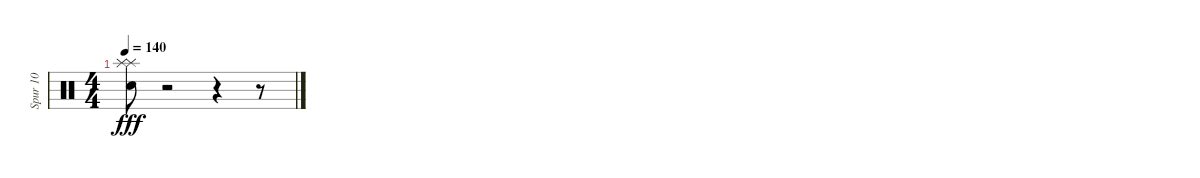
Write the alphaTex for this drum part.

\track ("Spur 10" "Spur 10") {instrument percussion}
\staff {score}
\articulation defaults
\ts (4 4)
\tempo 140
\clef neutral
\ks c
("Splash (hit)" "Splash (hit)" "Electric Snare (hit)").8{dy fff} r.2 r.4 r.8
